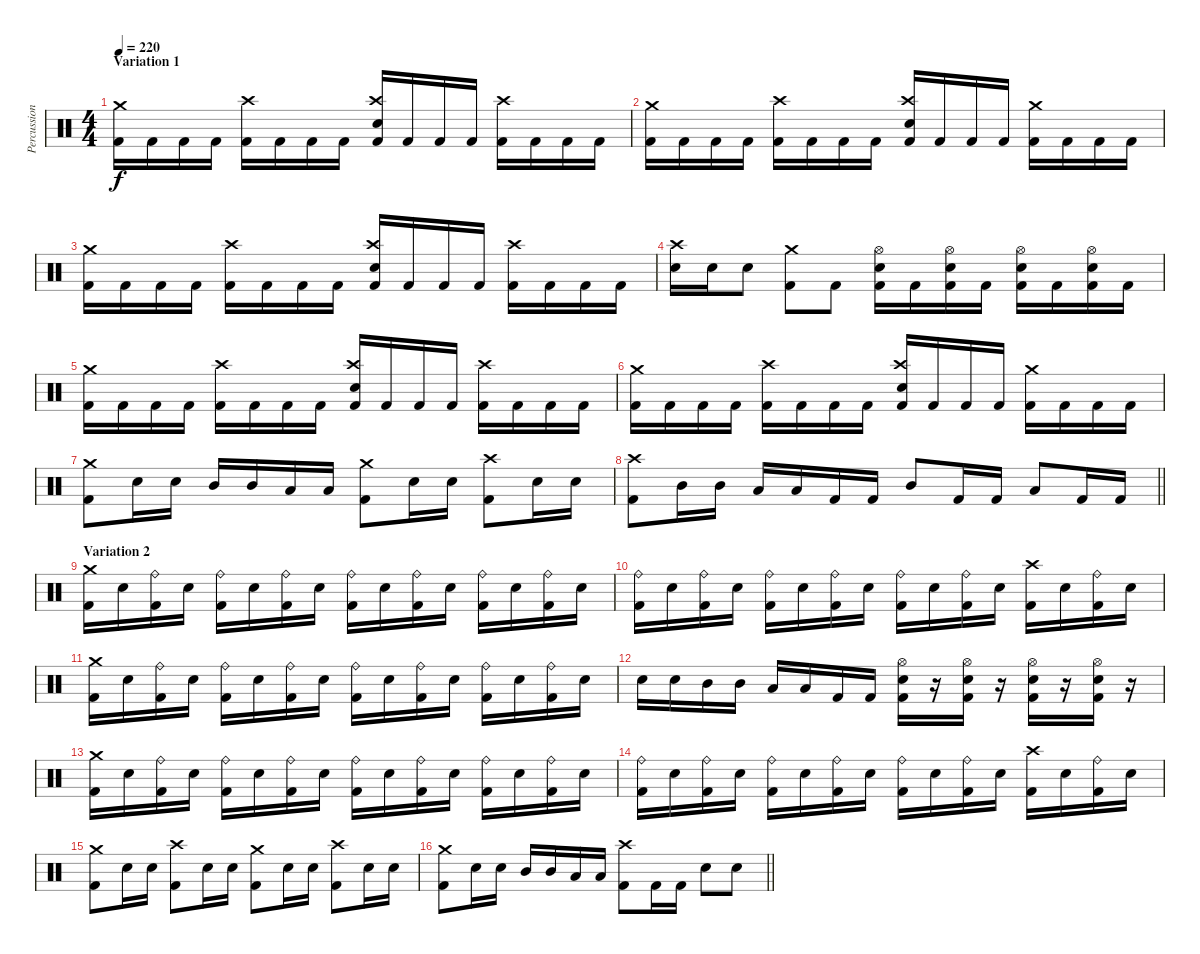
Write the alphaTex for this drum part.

\track ("Percussion" "Percussion") {instrument percussion}
\staff {score}
\articulation defaults
\ts (4 4)
\section ("" "Variation 1")
\tempo 220
\clef neutral
\ks c
("Crash medium (hit)" "Kick (hit) 2").16{dy f} "Kick (hit) 2".16 "Kick (hit) 2".16 "Kick (hit) 2".16 ("Crash high (hit)" "Kick (hit) 2").16 "Kick (hit) 2".16 "Kick (hit) 2".16 "Kick (hit) 2".16 ("Crash high (hit)" "Electric Snare (hit)" "Kick (hit) 2").16 "Kick (hit) 2".16 "Kick (hit) 2".16 "Kick (hit) 2".16 ("Crash high (hit)" "Kick (hit) 2").16 "Kick (hit) 2".16 "Kick (hit) 2".16 "Kick (hit) 2".16 |
("Crash medium (hit)" "Kick (hit) 2").16 "Kick (hit) 2".16 "Kick (hit) 2".16 "Kick (hit) 2".16 ("Crash high (hit)" "Kick (hit) 2").16 "Kick (hit) 2".16 "Kick (hit) 2".16 "Kick (hit) 2".16 ("Crash high (hit)" "Electric Snare (hit)" "Kick (hit) 2").16 "Kick (hit) 2".16 "Kick (hit) 2".16 "Kick (hit) 2".16 ("Crash medium (hit)" "Kick (hit) 2").16 "Kick (hit) 2".16 "Kick (hit) 2".16 "Kick (hit) 2".16 |
("Crash medium (hit)" "Kick (hit) 2").16 "Kick (hit) 2".16 "Kick (hit) 2".16 "Kick (hit) 2".16 ("Crash high (hit)" "Kick (hit) 2").16 "Kick (hit) 2".16 "Kick (hit) 2".16 "Kick (hit) 2".16 ("Crash high (hit)" "Electric Snare (hit)" "Kick (hit) 2").16 "Kick (hit) 2".16 "Kick (hit) 2".16 "Kick (hit) 2".16 ("Crash high (hit)" "Kick (hit) 2").16 "Kick (hit) 2".16 "Kick (hit) 2".16 "Kick (hit) 2".16 |
("Crash high (hit)" "Electric Snare (hit)").16 "Electric Snare (hit)".16 "Electric Snare (hit)".8 ("Crash medium (hit)" "Kick (hit) 2").8 "Kick (hit) 2".8 ("Hi-Hat (open)" "Electric Snare (hit)" "Kick (hit) 2").16 "Kick (hit) 2".16 ("Hi-Hat (open)" "Electric Snare (hit)" "Kick (hit) 2").16 "Kick (hit) 2".16 ("Hi-Hat (open)" "Electric Snare (hit)" "Kick (hit) 2").16 "Kick (hit) 2".16 ("Hi-Hat (open)" "Electric Snare (hit)" "Kick (hit) 2").16 "Kick (hit) 2".16 |
("Crash medium (hit)" "Kick (hit) 2").16 "Kick (hit) 2".16 "Kick (hit) 2".16 "Kick (hit) 2".16 ("Crash high (hit)" "Kick (hit) 2").16 "Kick (hit) 2".16 "Kick (hit) 2".16 "Kick (hit) 2".16 ("Crash high (hit)" "Electric Snare (hit)" "Kick (hit) 2").16 "Kick (hit) 2".16 "Kick (hit) 2".16 "Kick (hit) 2".16 ("Crash high (hit)" "Kick (hit) 2").16 "Kick (hit) 2".16 "Kick (hit) 2".16 "Kick (hit) 2".16 |
("Crash medium (hit)" "Kick (hit) 2").16 "Kick (hit) 2".16 "Kick (hit) 2".16 "Kick (hit) 2".16 ("Crash high (hit)" "Kick (hit) 2").16 "Kick (hit) 2".16 "Kick (hit) 2".16 "Kick (hit) 2".16 ("Crash high (hit)" "Electric Snare (hit)" "Kick (hit) 2").16 "Kick (hit) 2".16 "Kick (hit) 2".16 "Kick (hit) 2".16 ("Crash medium (hit)" "Kick (hit) 2").16 "Kick (hit) 2".16 "Kick (hit) 2".16 "Kick (hit) 2".16 |
("Crash medium (hit)" "Kick (hit) 2").8 "Electric Snare (hit)".16 "Electric Snare (hit)".16 "Mid Tom (hit)".16 "Mid Tom (hit)".16 "Low Tom (hit)".16 "Low Tom (hit)".16 ("Crash medium (hit)" "Kick (hit) 2").8 "Electric Snare (hit)".16 "Electric Snare (hit)".16 ("Crash high (hit)" "Kick (hit) 2").8 "Electric Snare (hit)".16 "Electric Snare (hit)".16 |
\barLineRight lightlight
("Crash high (hit)" "Kick (hit) 2").8 "Mid Tom (hit)".16 "Mid Tom (hit)".16 "Low Tom (hit)".16 "Low Tom (hit)".16 "Kick (hit) 2".16 "Kick (hit) 2".16 "Mid Tom (hit)".8 "Kick (hit) 2".16 "Kick (hit) 2".16 "Low Tom (hit)".8 "Kick (hit) 2".16 "Kick (hit) 2".16 |
\section ("" "Variation 2")
("Crash medium (hit)" "Kick (hit) 2").16 "Electric Snare (hit)".16 ("Ride (bell)" "Kick (hit) 2").16 "Electric Snare (hit)".16 ("Ride (bell)" "Kick (hit) 2").16 "Electric Snare (hit)".16 ("Ride (bell)" "Kick (hit) 2").16 "Electric Snare (hit)".16 ("Ride (bell)" "Kick (hit) 2").16 "Electric Snare (hit)".16 ("Ride (bell)" "Kick (hit) 2").16 "Electric Snare (hit)".16 ("Ride (bell)" "Kick (hit) 2").16 "Electric Snare (hit)".16 ("Ride (bell)" "Kick (hit) 2").16 "Electric Snare (hit)".16 |
("Ride (bell)" "Kick (hit) 2").16 "Electric Snare (hit)".16 ("Ride (bell)" "Kick (hit) 2").16 "Electric Snare (hit)".16 ("Ride (bell)" "Kick (hit) 2").16 "Electric Snare (hit)".16 ("Ride (bell)" "Kick (hit) 2").16 "Electric Snare (hit)".16 ("Ride (bell)" "Kick (hit) 2").16 "Electric Snare (hit)".16 ("Ride (bell)" "Kick (hit) 2").16 "Electric Snare (hit)".16 ("Crash high (hit)" "Kick (hit) 2").16 "Electric Snare (hit)".16 ("Ride (bell)" "Kick (hit) 2").16 "Electric Snare (hit)".16 |
("Crash medium (hit)" "Kick (hit) 2").16 "Electric Snare (hit)".16 ("Ride (bell)" "Kick (hit) 2").16 "Electric Snare (hit)".16 ("Ride (bell)" "Kick (hit) 2").16 "Electric Snare (hit)".16 ("Ride (bell)" "Kick (hit) 2").16 "Electric Snare (hit)".16 ("Ride (bell)" "Kick (hit) 2").16 "Electric Snare (hit)".16 ("Ride (bell)" "Kick (hit) 2").16 "Electric Snare (hit)".16 ("Ride (bell)" "Kick (hit) 2").16 "Electric Snare (hit)".16 ("Ride (bell)" "Kick (hit) 2").16 "Electric Snare (hit)".16 |
"Electric Snare (hit)".16 "Electric Snare (hit)".16 "Mid Tom (hit)".16 "Mid Tom (hit)".16 "Low Tom (hit)".16 "Low Tom (hit)".16 "Kick (hit) 2".16 "Kick (hit) 2".16 ("Hi-Hat (open)" "Electric Snare (hit)" "Kick (hit) 2").16 r.16 ("Hi-Hat (open)" "Electric Snare (hit)" "Kick (hit) 2").16 r.16 ("Hi-Hat (open)" "Electric Snare (hit)" "Kick (hit) 2").16 r.16 ("Hi-Hat (open)" "Electric Snare (hit)" "Kick (hit) 2").16 r.16 |
("Crash medium (hit)" "Kick (hit) 2").16 "Electric Snare (hit)".16 ("Ride (bell)" "Kick (hit) 2").16 "Electric Snare (hit)".16 ("Ride (bell)" "Kick (hit) 2").16 "Electric Snare (hit)".16 ("Ride (bell)" "Kick (hit) 2").16 "Electric Snare (hit)".16 ("Ride (bell)" "Kick (hit) 2").16 "Electric Snare (hit)".16 ("Ride (bell)" "Kick (hit) 2").16 "Electric Snare (hit)".16 ("Ride (bell)" "Kick (hit) 2").16 "Electric Snare (hit)".16 ("Ride (bell)" "Kick (hit) 2").16 "Electric Snare (hit)".16 |
("Ride (bell)" "Kick (hit) 2").16 "Electric Snare (hit)".16 ("Ride (bell)" "Kick (hit) 2").16 "Electric Snare (hit)".16 ("Ride (bell)" "Kick (hit) 2").16 "Electric Snare (hit)".16 ("Ride (bell)" "Kick (hit) 2").16 "Electric Snare (hit)".16 ("Ride (bell)" "Kick (hit) 2").16 "Electric Snare (hit)".16 ("Ride (bell)" "Kick (hit) 2").16 "Electric Snare (hit)".16 ("Crash high (hit)" "Kick (hit) 2").16 "Electric Snare (hit)".16 ("Ride (bell)" "Kick (hit) 2").16 "Electric Snare (hit)".16 |
("Crash medium (hit)" "Kick (hit) 2").8 "Electric Snare (hit)".16 "Electric Snare (hit)".16 ("Crash high (hit)" "Kick (hit) 2").8 "Electric Snare (hit)".16 "Electric Snare (hit)".16 ("Crash medium (hit)" "Kick (hit) 2").8 "Electric Snare (hit)".16 "Electric Snare (hit)".16 ("Crash high (hit)" "Kick (hit) 2").8 "Electric Snare (hit)".16 "Electric Snare (hit)".16 |
\barLineRight lightlight
("Crash medium (hit)" "Kick (hit) 2").8 "Electric Snare (hit)".16 "Electric Snare (hit)".16 "Mid Tom (hit)".16 "Mid Tom (hit)".16 "Low Tom (hit)".16 "Low Tom (hit)".16 ("Crash high (hit)" "Kick (hit) 2").8 "Kick (hit) 2".16 "Kick (hit) 2".16 "Electric Snare (hit)".8 "Electric Snare (hit)".8
